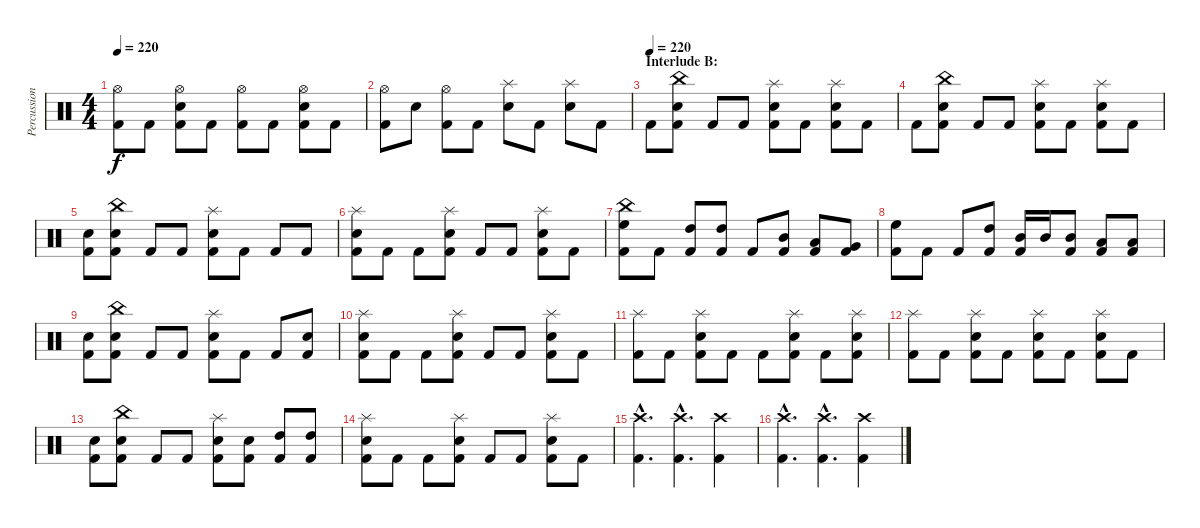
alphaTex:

\track ("Percussion" "Percussion") {instrument percussion}
\staff {score}
\articulation defaults
\ts (4 4)
\tempo 220
\clef neutral
\ks c
("Hi-Hat (open)" "Kick (hit) 2").8{dy f} "Kick (hit) 2".8 ("Hi-Hat (open)" "Electric Snare (hit)" "Kick (hit) 2").8 "Kick (hit) 2".8 ("Hi-Hat (open)" "Kick (hit) 2").8 "Kick (hit) 2".8 ("Hi-Hat (open)" "Electric Snare (hit)" "Kick (hit) 2").8 "Kick (hit) 2".8 |
("Hi-Hat (open)" "Kick (hit) 2").8 "Electric Snare (hit)".8 ("Hi-Hat (open)" "Kick (hit) 2").8 "Kick (hit) 2".8 ("Splash (hit)" "Electric Snare (hit)").8 "Kick (hit) 2".8 ("Splash (hit)" "Electric Snare (hit)").8 "Kick (hit) 2".8 |
\section ("" "Interlude B:")
\tempo (220)
"Kick (hit) 2".8 ("China (hit)" "Electric Snare (hit)" "Kick (hit) 2").8 "Kick (hit) 2".8 "Kick (hit) 2".8 ("Splash (hit)" "Electric Snare (hit)" "Kick (hit) 2").8 "Kick (hit) 2".8 ("Splash (hit)" "Electric Snare (hit)" "Kick (hit) 2").8 "Kick (hit) 2".8 |
"Kick (hit) 2".8 ("China (hit)" "Electric Snare (hit)" "Kick (hit) 2").8 "Kick (hit) 2".8 "Kick (hit) 2".8 ("Splash (hit)" "Electric Snare (hit)" "Kick (hit) 2").8 "Kick (hit) 2".8 ("Splash (hit)" "Electric Snare (hit)" "Kick (hit) 2").8 "Kick (hit) 2".8 |
("Electric Snare (hit)" "Kick (hit) 2").8 ("China (hit)" "Electric Snare (hit)" "Kick (hit) 2").8 "Kick (hit) 2".8 "Kick (hit) 2".8 ("Splash (hit)" "Electric Snare (hit)" "Kick (hit) 2").8 "Kick (hit) 2".8 "Kick (hit) 2".8 "Kick (hit) 2".8 |
("Splash (hit)" "Electric Snare (hit)" "Kick (hit) 2").8 "Kick (hit) 2".8 "Kick (hit) 2".8 ("Splash (hit)" "Electric Snare (hit)" "Kick (hit) 2").8 "Kick (hit) 2".8 "Kick (hit) 2".8 ("Splash (hit)" "Electric Snare (hit)" "Kick (hit) 2").8 "Kick (hit) 2".8 |
("China (hit)" "High Floor Tom (hit)" "Kick (hit) 2").8 "Kick (hit) 2".8 ("High Tom (hit)" "Kick (hit) 2").8 ("High Tom (hit)" "Kick (hit) 2").8 "Kick (hit) 2".8 ("Mid Tom (hit)" "Kick (hit) 2").8 ("Low Tom (hit)" "Kick (hit) 2").8 ("Very Low Tom (hit)" "Kick (hit) 2").8 |
("High Floor Tom (hit)" "Kick (hit) 2").8 "Kick (hit) 2".8 "Kick (hit) 2".8 ("High Tom (hit)" "Kick (hit) 2").8 ("Mid Tom (hit)" "Kick (hit) 2").16 "Mid Tom (hit)".16 ("Mid Tom (hit)" "Kick (hit) 2").8 ("Low Tom (hit)" "Kick (hit) 2").8 ("Low Tom (hit)" "Kick (hit) 2").8 |
("Electric Snare (hit)" "Kick (hit) 2").8 ("China (hit)" "Electric Snare (hit)" "Kick (hit) 2").8 "Kick (hit) 2".8 "Kick (hit) 2".8 ("Splash (hit)" "Electric Snare (hit)" "Kick (hit) 2").8 "Kick (hit) 2".8 "Kick (hit) 2".8 ("Electric Snare (hit)" "Kick (hit) 2").8 |
("Splash (hit)" "Electric Snare (hit)" "Kick (hit) 2").8 "Kick (hit) 2".8 "Kick (hit) 2".8 ("Splash (hit)" "Electric Snare (hit)" "Kick (hit) 2").8 "Kick (hit) 2".8 "Kick (hit) 2".8 ("Splash (hit)" "Electric Snare (hit)" "Kick (hit) 2").8 "Kick (hit) 2".8 |
("Splash (hit)" "Kick (hit) 2").8 "Kick (hit) 2".8 ("Splash (hit)" "Electric Snare (hit)" "Kick (hit) 2").8 "Kick (hit) 2".8 "Kick (hit) 2".8 ("Splash (hit)" "Electric Snare (hit)" "Kick (hit) 2").8 "Kick (hit) 2".8 ("Splash (hit)" "Electric Snare (hit)" "Kick (hit) 2").8 |
("Splash (hit)" "Kick (hit) 2").8 "Kick (hit) 2".8 ("Splash (hit)" "Electric Snare (hit)" "Kick (hit) 2").8 "Kick (hit) 2".8 ("Splash (hit)" "Electric Snare (hit)" "Kick (hit) 2").8 "Kick (hit) 2".8 ("Splash (hit)" "Electric Snare (hit)" "Kick (hit) 2").8 "Kick (hit) 2".8 |
("Electric Snare (hit)" "Kick (hit) 2").8 ("China (hit)" "Electric Snare (hit)" "Kick (hit) 2").8 "Kick (hit) 2".8 "Kick (hit) 2".8 ("Splash (hit)" "Electric Snare (hit)" "Kick (hit) 2").8 ("Electric Snare (hit)" "Kick (hit) 2").8 ("High Tom (hit)" "Kick (hit) 2").8 ("High Tom (hit)" "Kick (hit) 2").8 |
("Splash (hit)" "Electric Snare (hit)" "Kick (hit) 2").8 "Kick (hit) 2".8 "Kick (hit) 2".8 ("Splash (hit)" "Electric Snare (hit)" "Kick (hit) 2").8 "Kick (hit) 2".8 "Kick (hit) 2".8 ("Splash (hit)" "Electric Snare (hit)" "Kick (hit) 2").8 "Kick (hit) 2".8 |
("Crash high (hit)"{hac} "Kick (hit) 2"{hac}).4{d} ("Crash high (hit)"{hac} "Kick (hit) 2"{hac}).4{d} ("Crash high (hit)" "Kick (hit) 2").4 |
("Crash high (hit)"{hac} "Kick (hit) 2"{hac}).4{d} ("Crash high (hit)"{hac} "Kick (hit) 2"{hac}).4{d} ("Crash high (hit)" "Kick (hit) 2").4
